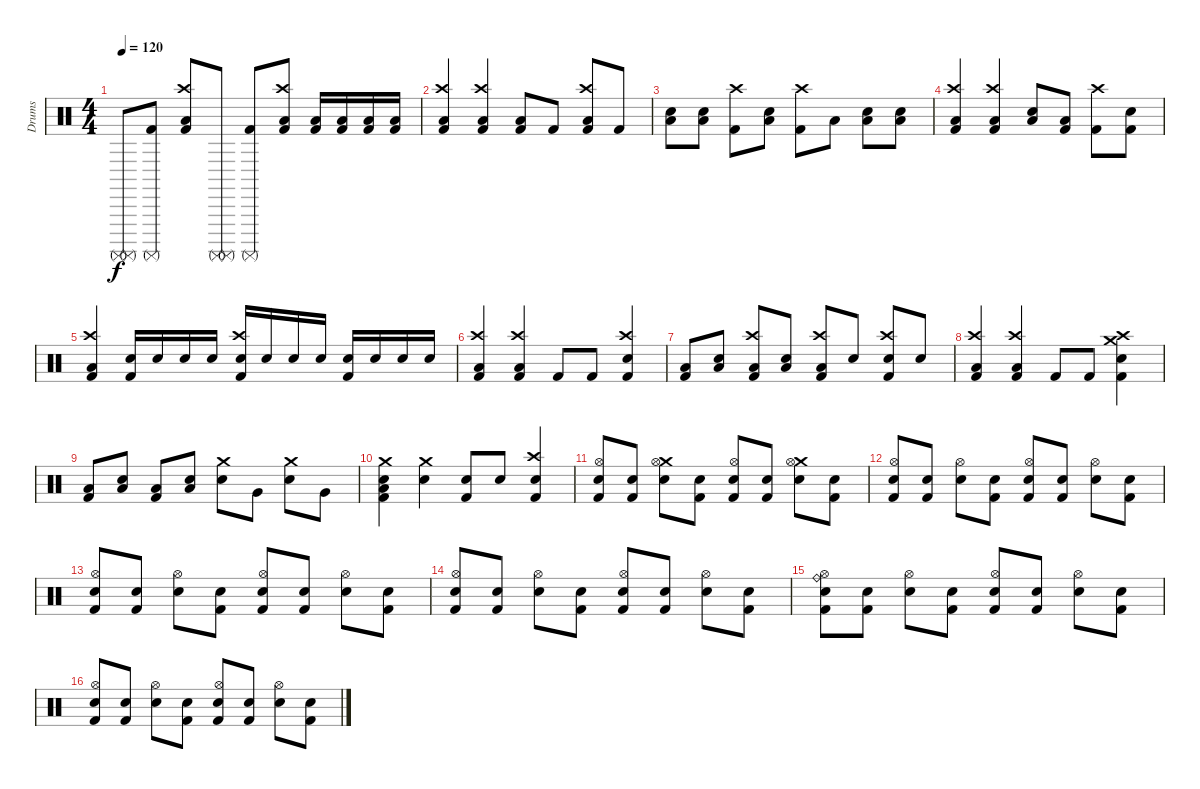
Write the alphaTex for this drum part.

\track ("Drums" "Drums") {instrument percussion}
\staff {score}
\articulation defaults
\ts (4 4)
\tempo 120
\clef neutral
\ks c
("Surdo (mute)" "Surdo (mute)").8{dy f} ("Surdo (mute)" "Kick (hit) 2").8 ("Crash high (hit)" "Low Floor Tom (hit)" "Kick (hit) 2").8 ("Surdo (mute)" "Surdo (mute)").8 ("Surdo (mute)" "Kick (hit) 2").8 ("Crash high (hit)" "Low Floor Tom (hit)" "Kick (hit) 2").8 ("Low Floor Tom (hit)" "Kick (hit) 2").16 ("Low Floor Tom (hit)" "Kick (hit) 2").16 ("Low Floor Tom (hit)" "Kick (hit) 2").16 ("Low Floor Tom (hit)" "Kick (hit) 2").16 |
("Crash high (hit)" "Low Floor Tom (hit)" "Kick (hit) 2").4 ("Kick (hit) 2" "Low Floor Tom (hit)" "Crash high (hit)").4 ("Low Floor Tom (hit)" "Kick (hit) 2").8 "Kick (hit) 2".8 ("Crash high (hit)" "Low Floor Tom (hit)" "Kick (hit) 2").8 "Kick (hit) 2".8 |
("Snare (hit) 2" "Low Floor Tom (hit)").8 ("Snare (hit) 2" "Low Floor Tom (hit)").8 ("Crash high (hit)" "Kick (hit) 2").8 ("Snare (hit) 2" "Low Floor Tom (hit)").8 ("Crash high (hit)" "Kick (hit) 2").8 "Low Floor Tom (hit)".8 ("Snare (hit) 2" "Low Floor Tom (hit)").8 ("Snare (hit) 2" "Low Floor Tom (hit)").8 |
("Crash high (hit)" "Low Floor Tom (hit)" "Kick (hit) 2").4 ("Crash high (hit)" "Low Floor Tom (hit)" "Kick (hit) 2").4 ("Low Floor Tom (hit)" "Snare (hit) 2").8 ("Low Floor Tom (hit)" "Kick (hit) 2").8 ("Crash high (hit)" "Kick (hit) 2").8 ("Snare (hit) 2" "Kick (hit) 2").8 |
("Crash high (hit)" "Low Floor Tom (hit)" "Kick (hit) 2").4 ("Snare (hit) 2" "Kick (hit) 2").16 "Snare (hit) 2".16 "Snare (hit) 2".16 "Snare (hit) 2".16 ("Crash high (hit)" "Snare (hit) 2" "Kick (hit) 2").16 "Snare (hit) 2".16 "Snare (hit) 2".16 "Snare (hit) 2".16 ("Snare (hit) 2" "Kick (hit) 2").16 "Snare (hit) 2".16 "Snare (hit) 2".16 "Snare (hit) 2".16 |
("Crash high (hit)" "Low Floor Tom (hit)" "Kick (hit) 2").4 ("Crash high (hit)" "Low Floor Tom (hit)" "Kick (hit) 2").4 "Kick (hit) 2".8 "Kick (hit) 2".8 ("Crash high (hit)" "Snare (hit) 2" "Kick (hit) 2").4 |
("Low Floor Tom (hit)" "Kick (hit) 2").8 ("Low Floor Tom (hit)" "Snare (hit) 2").8 ("Crash high (hit)" "Kick (hit) 2" "Low Floor Tom (hit)").8 ("Low Floor Tom (hit)" "Snare (hit) 2").8 ("Low Floor Tom (hit)" "Kick (hit) 2" "Crash high (hit)").8 "Snare (hit) 2".8 ("Crash high (hit)" "Snare (hit) 2" "Kick (hit) 2").8 "Snare (hit) 2".8 |
("Crash high (hit)" "Low Floor Tom (hit)" "Kick (hit) 2").4 ("Crash high (hit)" "Low Floor Tom (hit)" "Kick (hit) 2").4 "Kick (hit) 2".8 "Kick (hit) 2".8 ("Kick (hit) 2" "Crash medium (hit)" "Snare (hit) 2" "Crash high (hit)").4 |
("Low Floor Tom (hit)" "Kick (hit) 2").8 ("Snare (hit) 2" "Low Floor Tom (hit)").8 ("Low Floor Tom (hit)" "Kick (hit) 2").8 ("Snare (hit) 2" "Low Floor Tom (hit)").8 ("Crash medium (hit)" "Snare (hit) 2").8 "Very Low Tom (hit)".8 ("Crash medium (hit)" "Snare (hit) 2").8 "Very Low Tom (hit)".8 |
("Crash medium (hit)" "Snare (hit) 2" "Low Floor Tom (hit)" "Kick (hit) 2").4 ("Crash medium (hit)" "Snare (hit) 2").4 ("Snare (hit) 2" "Kick (hit) 2").8 "Snare (hit) 2".8 ("Crash high (hit)" "Snare (hit) 2" "Kick (hit) 2").4 |
("Hi-Hat (open)" "Electric Snare (hit)" "Kick (hit) 2").8{volume 10} ("Electric Snare (hit)" "Kick (hit) 2").8 ("Crash medium (hit)" "Hi-Hat (open)" "Electric Snare (hit)").8 ("Snare (hit) 2" "Kick (hit) 2").8 ("Hi-Hat (open)" "Electric Snare (hit)" "Kick (hit) 2").8 ("Electric Snare (hit)" "Kick (hit) 2").8 ("Crash medium (hit)" "Hi-Hat (open)" "Electric Snare (hit)").8 ("Kick (hit) 2" "Snare (hit) 2").8 |
("Hi-Hat (open)" "Electric Snare (hit)" "Kick (hit) 2").8 ("Electric Snare (hit)" "Kick (hit) 2").8 ("Hi-Hat (open)" "Electric Snare (hit)").8 ("Snare (hit) 2" "Kick (hit) 2").8 ("Hi-Hat (open)" "Electric Snare (hit)" "Kick (hit) 2").8 ("Electric Snare (hit)" "Kick (hit) 2").8 ("Hi-Hat (open)" "Electric Snare (hit)").8 ("Kick (hit) 2" "Snare (hit) 2").8 |
("Hi-Hat (open)" "Electric Snare (hit)" "Kick (hit) 2").8 ("Electric Snare (hit)" "Kick (hit) 2").8 ("Hi-Hat (open)" "Electric Snare (hit)").8 ("Snare (hit) 2" "Kick (hit) 2").8 ("Hi-Hat (open)" "Electric Snare (hit)" "Kick (hit) 2").8 ("Electric Snare (hit)" "Kick (hit) 2").8 ("Hi-Hat (open)" "Electric Snare (hit)").8 ("Kick (hit) 2" "Snare (hit) 2").8 |
("Hi-Hat (open)" "Electric Snare (hit)" "Kick (hit) 2").8 ("Electric Snare (hit)" "Kick (hit) 2").8 ("Hi-Hat (open)" "Electric Snare (hit)").8 ("Snare (hit) 2" "Kick (hit) 2").8 ("Hi-Hat (open)" "Electric Snare (hit)" "Kick (hit) 2").8 ("Electric Snare (hit)" "Kick (hit) 2").8 ("Hi-Hat (open)" "Electric Snare (hit)").8 ("Kick (hit) 2" "Snare (hit) 2").8 |
("Ride (bell)" "Hi-Hat (open)" "Electric Snare (hit)" "Kick (hit) 2").8 ("Electric Snare (hit)" "Kick (hit) 2").8 ("Hi-Hat (open)" "Electric Snare (hit)").8 ("Snare (hit) 2" "Kick (hit) 2").8 ("Hi-Hat (open)" "Electric Snare (hit)" "Kick (hit) 2").8 ("Electric Snare (hit)" "Kick (hit) 2").8 ("Hi-Hat (open)" "Electric Snare (hit)").8 ("Kick (hit) 2" "Snare (hit) 2").8 |
("Hi-Hat (open)" "Electric Snare (hit)" "Kick (hit) 2").8 ("Electric Snare (hit)" "Kick (hit) 2").8 ("Hi-Hat (open)" "Electric Snare (hit)").8 ("Snare (hit) 2" "Kick (hit) 2").8 ("Hi-Hat (open)" "Electric Snare (hit)" "Kick (hit) 2").8 ("Electric Snare (hit)" "Kick (hit) 2").8 ("Hi-Hat (open)" "Electric Snare (hit)").8 ("Kick (hit) 2" "Snare (hit) 2").8
